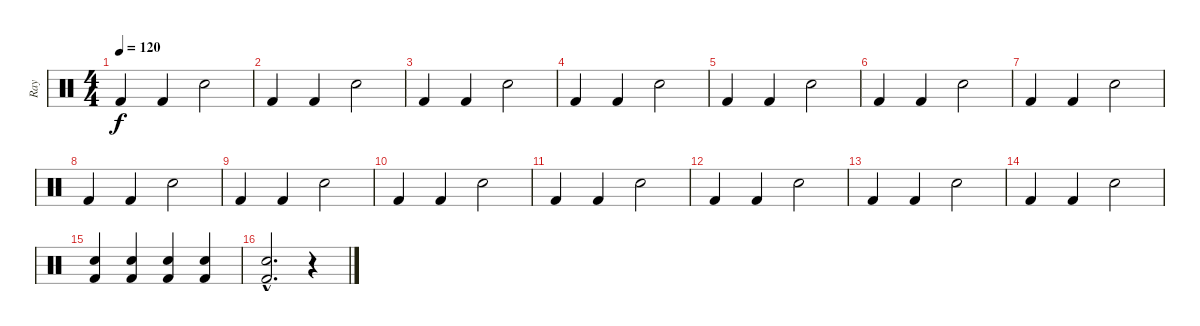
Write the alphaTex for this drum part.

\track ("Ray" "Ray") {instrument percussion}
\staff {score}
\articulation defaults
\ts (4 4)
\tempo 120
\clef neutral
\ks c "Kick (hit) 2".4{dy f} "Kick (hit) 2".4 "Snare (hit) 2".2
|
"Kick (hit) 2".4 "Kick (hit) 2".4 "Snare (hit) 2".2 |
"Kick (hit) 2".4 "Kick (hit) 2".4 "Snare (hit) 2".2 |
"Kick (hit) 2".4 "Kick (hit) 2".4 "Snare (hit) 2".2 |
"Kick (hit) 2".4 "Kick (hit) 2".4 "Snare (hit) 2".2 |
"Kick (hit) 2".4 "Kick (hit) 2".4 "Snare (hit) 2".2 |
"Kick (hit) 2".4 "Kick (hit) 2".4 "Snare (hit) 2".2 |
"Kick (hit) 2".4 "Kick (hit) 2".4 "Snare (hit) 2".2 |
"Kick (hit) 2".4 "Kick (hit) 2".4 "Snare (hit) 2".2 |
"Kick (hit) 2".4 "Kick (hit) 2".4 "Snare (hit) 2".2 |
"Kick (hit) 2".4 "Kick (hit) 2".4 "Snare (hit) 2".2 |
"Kick (hit) 2".4 "Kick (hit) 2".4 "Snare (hit) 2".2 |
"Kick (hit) 2".4 "Kick (hit) 2".4 "Snare (hit) 2".2 |
"Kick (hit) 2".4 "Kick (hit) 2".4 "Snare (hit) 2".2 |
("Snare (hit) 2" "Kick (hit) 2").4 ("Snare (hit) 2" "Kick (hit) 2").4 ("Snare (hit) 2" "Kick (hit) 2").4 ("Snare (hit) 2" "Kick (hit) 2").4 |
("Snare (hit) 2"{hac} "Kick (hit) 2"{hac}).2{d} r.4
